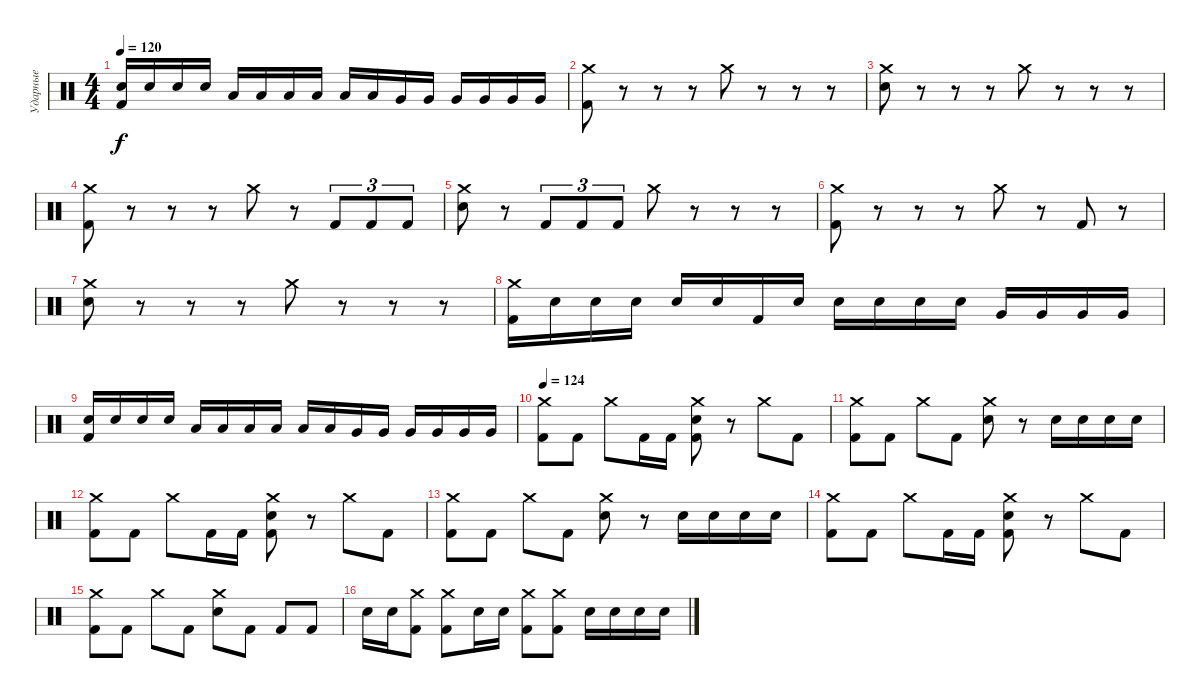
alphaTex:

\track ("Ударные" "Ударные") {instrument percussion}
\staff {score}
\articulation defaults
\ts (4 4)
\tempo 120
\clef neutral
\ks c
("Snare (hit) 2" "Kick (hit) 2").16{dy f} "Snare (hit) 2".16 "Snare (hit) 2".16 "Snare (hit) 2".16 "Low Tom (hit)".16 "Low Tom (hit)".16 "Low Tom (hit)".16 "Low Tom (hit)".16 "Low Tom (hit)".16 "Low Tom (hit)".16 "Very Low Tom (hit)".16 "Very Low Tom (hit)".16 "Very Low Tom (hit)".16 "Very Low Tom (hit)".16 "Very Low Tom (hit)".16 "Very Low Tom (hit)".16 |
("Crash medium (hit)" "Kick (hit) 2").8 r.8 r.8 r.8 "Crash medium (hit)".8 r.8 r.8 r.8 |
("Crash medium (hit)" "Snare (hit) 2").8 r.8 r.8 r.8 "Crash medium (hit)".8 r.8 r.8 r.8 |
("Crash medium (hit)" "Kick (hit) 2").8 r.8 r.8 r.8 "Crash medium (hit)".8 r.8 "Kick (hit) 2".8{tu (3 2)} "Kick (hit) 2".8{tu (3 2)} "Kick (hit) 2".8{tu (3 2)} |
("Crash medium (hit)" "Snare (hit) 2").8 r.8 "Kick (hit) 2".8{tu (3 2)} "Kick (hit) 2".8{tu (3 2)} "Kick (hit) 2".8{tu (3 2)} "Crash medium (hit)".8 r.8 r.8 r.8 |
("Crash medium (hit)" "Kick (hit) 2").8 r.8 r.8 r.8 "Crash medium (hit)".8 r.8 "Kick (hit) 2".8 r.8 |
("Crash medium (hit)" "Snare (hit) 2").8 r.8 r.8 r.8 "Crash medium (hit)".8 r.8 r.8 r.8 |
("Crash medium (hit)" "Kick (hit) 2").16 "Snare (hit) 2".16 "Snare (hit) 2".16 "Snare (hit) 2".16 "Snare (hit) 2".16 "Snare (hit) 2".16 "Kick (hit) 2".16 "Snare (hit) 2".16 "Snare (hit) 2".16 "Snare (hit) 2".16 "Snare (hit) 2".16 "Snare (hit) 2".16 "Very Low Tom (hit)".16 "Very Low Tom (hit)".16 "Very Low Tom (hit)".16 "Very Low Tom (hit)".16 |
("Snare (hit) 2" "Kick (hit) 2").16 "Snare (hit) 2".16 "Snare (hit) 2".16 "Snare (hit) 2".16 "Low Tom (hit)".16 "Low Tom (hit)".16 "Low Tom (hit)".16 "Low Tom (hit)".16 "Low Tom (hit)".16 "Low Tom (hit)".16 "Very Low Tom (hit)".16 "Very Low Tom (hit)".16 "Very Low Tom (hit)".16 "Very Low Tom (hit)".16 "Very Low Tom (hit)".16 "Very Low Tom (hit)".16 |
\tempo 124
("Crash medium (hit)" "Kick (hit) 2").8 "Kick (hit) 2".8 "Crash medium (hit)".8 "Kick (hit) 2".16 "Kick (hit) 2".16 ("Crash medium (hit)" "Snare (hit) 2" "Kick (hit) 2").8 r.8 "Crash medium (hit)".8 "Kick (hit) 2".8 |
("Crash medium (hit)" "Kick (hit) 2").8 "Kick (hit) 2".8 "Crash medium (hit)".8 "Kick (hit) 2".8 ("Crash medium (hit)" "Snare (hit) 2").8 r.8 "Snare (hit) 2".16 "Snare (hit) 2".16 "Snare (hit) 2".16 "Snare (hit) 2".16 |
("Crash medium (hit)" "Kick (hit) 2").8 "Kick (hit) 2".8 "Crash medium (hit)".8 "Kick (hit) 2".16 "Kick (hit) 2".16 ("Crash medium (hit)" "Snare (hit) 2" "Kick (hit) 2").8 r.8 "Crash medium (hit)".8 "Kick (hit) 2".8 |
("Crash medium (hit)" "Kick (hit) 2").8 "Kick (hit) 2".8 "Crash medium (hit)".8 "Kick (hit) 2".8 ("Crash medium (hit)" "Snare (hit) 2").8 r.8 "Snare (hit) 2".16 "Snare (hit) 2".16 "Snare (hit) 2".16 "Snare (hit) 2".16 |
("Crash medium (hit)" "Kick (hit) 2").8 "Kick (hit) 2".8 "Crash medium (hit)".8 "Kick (hit) 2".16 "Kick (hit) 2".16 ("Crash medium (hit)" "Snare (hit) 2" "Kick (hit) 2").8 r.8 "Crash medium (hit)".8 "Kick (hit) 2".8 |
("Crash medium (hit)" "Kick (hit) 2").8 "Kick (hit) 2".8 "Crash medium (hit)".8 "Kick (hit) 2".8 ("Crash medium (hit)" "Snare (hit) 2").8 "Kick (hit) 2".8 "Kick (hit) 2".8 "Kick (hit) 2".8 |
"Snare (hit) 2".16 "Snare (hit) 2".16 ("Crash medium (hit)" "Kick (hit) 2").8 ("Crash medium (hit)" "Kick (hit) 2").8 "Snare (hit) 2".16 "Snare (hit) 2".16 ("Crash medium (hit)" "Kick (hit) 2").8 ("Crash medium (hit)" "Kick (hit) 2").8 "Snare (hit) 2".16 "Snare (hit) 2".16 "Snare (hit) 2".16 "Snare (hit) 2".16
